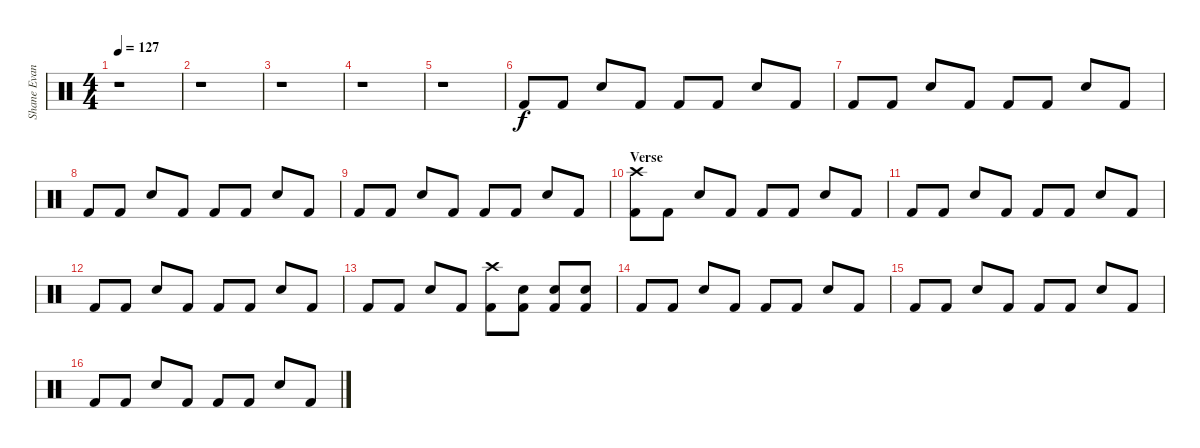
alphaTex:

\track ("Shane Evans" "Shane Evan") {instrument percussion}
\staff {score}
\articulation defaults
\ts (4 4)
\tempo 127
\clef neutral
\ks c
r.1{dy f} |
r.1 |
r.1 |
r.1 |
r.1 |
"Kick (hit) 2".8 "Kick (hit) 2".8 "Snare (hit) 2".8 "Kick (hit) 2".8 "Kick (hit) 2".8 "Kick (hit) 2".8 "Snare (hit) 2".8 "Kick (hit) 2".8 |
"Kick (hit) 2".8 "Kick (hit) 2".8 "Snare (hit) 2".8 "Kick (hit) 2".8 "Kick (hit) 2".8 "Kick (hit) 2".8 "Snare (hit) 2".8 "Kick (hit) 2".8 |
"Kick (hit) 2".8 "Kick (hit) 2".8 "Snare (hit) 2".8 "Kick (hit) 2".8 "Kick (hit) 2".8 "Kick (hit) 2".8 "Snare (hit) 2".8 "Kick (hit) 2".8 |
"Kick (hit) 2".8 "Kick (hit) 2".8 "Snare (hit) 2".8 "Kick (hit) 2".8 "Kick (hit) 2".8 "Kick (hit) 2".8 "Snare (hit) 2".8 "Kick (hit) 2".8 |
\section ("" "Verse")
("Crash high (hit)" "Kick (hit) 2").8 "Kick (hit) 2".8 "Snare (hit) 2".8 "Kick (hit) 2".8 "Kick (hit) 2".8 "Kick (hit) 2".8 "Snare (hit) 2".8 "Kick (hit) 2".8 |
"Kick (hit) 2".8 "Kick (hit) 2".8 "Snare (hit) 2".8 "Kick (hit) 2".8 "Kick (hit) 2".8 "Kick (hit) 2".8 "Snare (hit) 2".8 "Kick (hit) 2".8 |
"Kick (hit) 2".8 "Kick (hit) 2".8 "Snare (hit) 2".8 "Kick (hit) 2".8 "Kick (hit) 2".8 "Kick (hit) 2".8 "Snare (hit) 2".8 "Kick (hit) 2".8 |
"Kick (hit) 2".8 "Kick (hit) 2".8 "Snare (hit) 2".8 "Kick (hit) 2".8 ("Crash high (hit)" "Kick (hit) 2").8 ("Snare (hit) 2" "Kick (hit) 2").8 ("Snare (hit) 2" "Kick (hit) 2").8 ("Snare (hit) 2" "Kick (hit) 2").8 |
"Kick (hit) 2".8 "Kick (hit) 2".8 "Snare (hit) 2".8 "Kick (hit) 2".8 "Kick (hit) 2".8 "Kick (hit) 2".8 "Snare (hit) 2".8 "Kick (hit) 2".8 |
"Kick (hit) 2".8 "Kick (hit) 2".8 "Snare (hit) 2".8 "Kick (hit) 2".8 "Kick (hit) 2".8 "Kick (hit) 2".8 "Snare (hit) 2".8 "Kick (hit) 2".8 |
"Kick (hit) 2".8 "Kick (hit) 2".8 "Snare (hit) 2".8 "Kick (hit) 2".8 "Kick (hit) 2".8 "Kick (hit) 2".8 "Snare (hit) 2".8 "Kick (hit) 2".8
